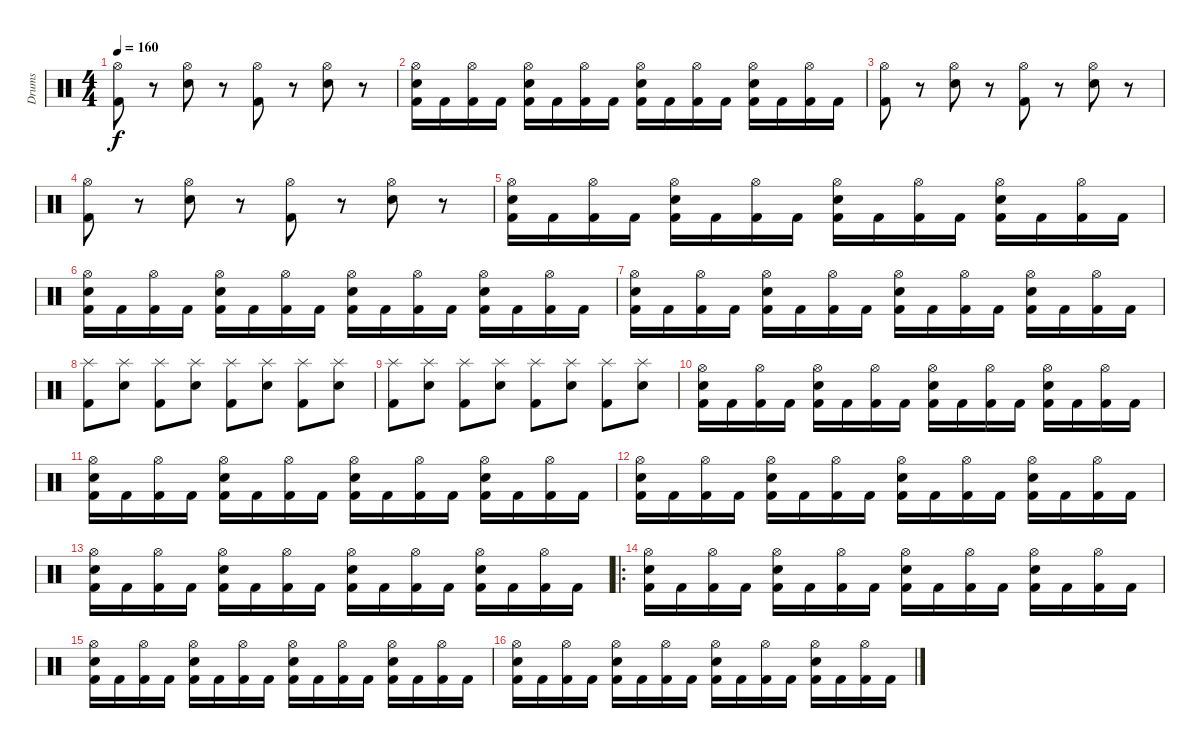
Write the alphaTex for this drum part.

\track ("Drums" "Drums") {instrument percussion}
\staff {score}
\articulation defaults
\ts (4 4)
\tempo 160
\clef neutral
\ks c
("Hi-Hat (open)" "Kick (hit) 2").8{dy f} r.8 ("Hi-Hat (open)" "Electric Snare (hit)").8 r.8 ("Hi-Hat (open)" "Kick (hit) 2").8 r.8 ("Hi-Hat (open)" "Electric Snare (hit)").8 r.8 |
("Hi-Hat (open)" "Electric Snare (hit)" "Kick (hit) 2").16 "Kick (hit) 2".16 ("Hi-Hat (open)" "Kick (hit) 2").16 "Kick (hit) 2".16 ("Hi-Hat (open)" "Electric Snare (hit)" "Kick (hit) 2").16 "Kick (hit) 2".16 ("Hi-Hat (open)" "Kick (hit) 2").16 "Kick (hit) 2".16 ("Hi-Hat (open)" "Electric Snare (hit)" "Kick (hit) 2").16 "Kick (hit) 2".16 ("Hi-Hat (open)" "Kick (hit) 2").16 "Kick (hit) 2".16 ("Hi-Hat (open)" "Electric Snare (hit)" "Kick (hit) 2").16 "Kick (hit) 2".16 ("Hi-Hat (open)" "Kick (hit) 2").16 "Kick (hit) 2".16 |
("Hi-Hat (open)" "Kick (hit) 2").8 r.8 ("Hi-Hat (open)" "Electric Snare (hit)").8 r.8 ("Hi-Hat (open)" "Kick (hit) 2").8 r.8 ("Hi-Hat (open)" "Electric Snare (hit)").8 r.8 |
("Hi-Hat (open)" "Kick (hit) 2").8 r.8 ("Hi-Hat (open)" "Electric Snare (hit)").8 r.8 ("Hi-Hat (open)" "Kick (hit) 2").8 r.8 ("Hi-Hat (open)" "Electric Snare (hit)").8 r.8 |
("Hi-Hat (open)" "Electric Snare (hit)" "Kick (hit) 2").16 "Kick (hit) 2".16 ("Hi-Hat (open)" "Kick (hit) 2").16 "Kick (hit) 2".16 ("Hi-Hat (open)" "Electric Snare (hit)" "Kick (hit) 2").16 "Kick (hit) 2".16 ("Hi-Hat (open)" "Kick (hit) 2").16 "Kick (hit) 2".16 ("Hi-Hat (open)" "Electric Snare (hit)" "Kick (hit) 2").16 "Kick (hit) 2".16 ("Hi-Hat (open)" "Kick (hit) 2").16 "Kick (hit) 2".16 ("Hi-Hat (open)" "Electric Snare (hit)" "Kick (hit) 2").16 "Kick (hit) 2".16 ("Hi-Hat (open)" "Kick (hit) 2").16 "Kick (hit) 2".16 |
("Hi-Hat (open)" "Electric Snare (hit)" "Kick (hit) 2").16 "Kick (hit) 2".16 ("Hi-Hat (open)" "Kick (hit) 2").16 "Kick (hit) 2".16 ("Hi-Hat (open)" "Electric Snare (hit)" "Kick (hit) 2").16 "Kick (hit) 2".16 ("Hi-Hat (open)" "Kick (hit) 2").16 "Kick (hit) 2".16 ("Hi-Hat (open)" "Electric Snare (hit)" "Kick (hit) 2").16 "Kick (hit) 2".16 ("Hi-Hat (open)" "Kick (hit) 2").16 "Kick (hit) 2".16 ("Hi-Hat (open)" "Electric Snare (hit)" "Kick (hit) 2").16 "Kick (hit) 2".16 ("Hi-Hat (open)" "Kick (hit) 2").16 "Kick (hit) 2".16 |
("Hi-Hat (open)" "Electric Snare (hit)" "Kick (hit) 2").16 "Kick (hit) 2".16 ("Hi-Hat (open)" "Kick (hit) 2").16 "Kick (hit) 2".16 ("Hi-Hat (open)" "Electric Snare (hit)" "Kick (hit) 2").16 "Kick (hit) 2".16 ("Hi-Hat (open)" "Kick (hit) 2").16 "Kick (hit) 2".16 ("Hi-Hat (open)" "Electric Snare (hit)" "Kick (hit) 2").16 "Kick (hit) 2".16 ("Hi-Hat (open)" "Kick (hit) 2").16 "Kick (hit) 2".16 ("Hi-Hat (open)" "Electric Snare (hit)" "Kick (hit) 2").16 "Kick (hit) 2".16 ("Hi-Hat (open)" "Kick (hit) 2").16 "Kick (hit) 2".16 |
("Splash (hit)" "Kick (hit) 2").8 ("Splash (hit)" "Electric Snare (hit)").8 ("Splash (hit)" "Kick (hit) 2").8 ("Splash (hit)" "Electric Snare (hit)").8 ("Splash (hit)" "Kick (hit) 2").8 ("Splash (hit)" "Electric Snare (hit)").8 ("Splash (hit)" "Kick (hit) 2").8 ("Splash (hit)" "Electric Snare (hit)").8 |
("Splash (hit)" "Kick (hit) 2").8 ("Splash (hit)" "Electric Snare (hit)").8 ("Splash (hit)" "Kick (hit) 2").8 ("Splash (hit)" "Electric Snare (hit)").8 ("Splash (hit)" "Kick (hit) 2").8 ("Splash (hit)" "Electric Snare (hit)").8 ("Splash (hit)" "Kick (hit) 2").8 ("Splash (hit)" "Electric Snare (hit)").8 |
("Hi-Hat (open)" "Electric Snare (hit)" "Kick (hit) 2").16 "Kick (hit) 2".16 ("Hi-Hat (open)" "Kick (hit) 2").16 "Kick (hit) 2".16 ("Hi-Hat (open)" "Electric Snare (hit)" "Kick (hit) 2").16 "Kick (hit) 2".16 ("Hi-Hat (open)" "Kick (hit) 2").16 "Kick (hit) 2".16 ("Hi-Hat (open)" "Electric Snare (hit)" "Kick (hit) 2").16 "Kick (hit) 2".16 ("Hi-Hat (open)" "Kick (hit) 2").16 "Kick (hit) 2".16 ("Hi-Hat (open)" "Electric Snare (hit)" "Kick (hit) 2").16 "Kick (hit) 2".16 ("Hi-Hat (open)" "Kick (hit) 2").16 "Kick (hit) 2".16 |
("Hi-Hat (open)" "Electric Snare (hit)" "Kick (hit) 2").16 "Kick (hit) 2".16 ("Hi-Hat (open)" "Kick (hit) 2").16 "Kick (hit) 2".16 ("Hi-Hat (open)" "Electric Snare (hit)" "Kick (hit) 2").16 "Kick (hit) 2".16 ("Hi-Hat (open)" "Kick (hit) 2").16 "Kick (hit) 2".16 ("Hi-Hat (open)" "Electric Snare (hit)" "Kick (hit) 2").16 "Kick (hit) 2".16 ("Hi-Hat (open)" "Kick (hit) 2").16 "Kick (hit) 2".16 ("Hi-Hat (open)" "Electric Snare (hit)" "Kick (hit) 2").16 "Kick (hit) 2".16 ("Hi-Hat (open)" "Kick (hit) 2").16 "Kick (hit) 2".16 |
("Hi-Hat (open)" "Electric Snare (hit)" "Kick (hit) 2").16 "Kick (hit) 2".16 ("Hi-Hat (open)" "Kick (hit) 2").16 "Kick (hit) 2".16 ("Hi-Hat (open)" "Electric Snare (hit)" "Kick (hit) 2").16 "Kick (hit) 2".16 ("Hi-Hat (open)" "Kick (hit) 2").16 "Kick (hit) 2".16 ("Hi-Hat (open)" "Electric Snare (hit)" "Kick (hit) 2").16 "Kick (hit) 2".16 ("Hi-Hat (open)" "Kick (hit) 2").16 "Kick (hit) 2".16 ("Hi-Hat (open)" "Electric Snare (hit)" "Kick (hit) 2").16 "Kick (hit) 2".16 ("Hi-Hat (open)" "Kick (hit) 2").16 "Kick (hit) 2".16 |
("Hi-Hat (open)" "Electric Snare (hit)" "Kick (hit) 2").16 "Kick (hit) 2".16 ("Hi-Hat (open)" "Kick (hit) 2").16 "Kick (hit) 2".16 ("Hi-Hat (open)" "Electric Snare (hit)" "Kick (hit) 2").16 "Kick (hit) 2".16 ("Hi-Hat (open)" "Kick (hit) 2").16 "Kick (hit) 2".16 ("Hi-Hat (open)" "Electric Snare (hit)" "Kick (hit) 2").16 "Kick (hit) 2".16 ("Hi-Hat (open)" "Kick (hit) 2").16 "Kick (hit) 2".16 ("Hi-Hat (open)" "Electric Snare (hit)" "Kick (hit) 2").16 "Kick (hit) 2".16 ("Hi-Hat (open)" "Kick (hit) 2").16 "Kick (hit) 2".16 |
\ro
("Hi-Hat (open)" "Electric Snare (hit)" "Kick (hit) 2").16 "Kick (hit) 2".16 ("Hi-Hat (open)" "Kick (hit) 2").16 "Kick (hit) 2".16 ("Hi-Hat (open)" "Electric Snare (hit)" "Kick (hit) 2").16 "Kick (hit) 2".16 ("Hi-Hat (open)" "Kick (hit) 2").16 "Kick (hit) 2".16 ("Hi-Hat (open)" "Electric Snare (hit)" "Kick (hit) 2").16 "Kick (hit) 2".16 ("Hi-Hat (open)" "Kick (hit) 2").16 "Kick (hit) 2".16 ("Hi-Hat (open)" "Electric Snare (hit)" "Kick (hit) 2").16 "Kick (hit) 2".16 ("Hi-Hat (open)" "Kick (hit) 2").16 "Kick (hit) 2".16 |
("Hi-Hat (open)" "Electric Snare (hit)" "Kick (hit) 2").16 "Kick (hit) 2".16 ("Hi-Hat (open)" "Kick (hit) 2").16 "Kick (hit) 2".16 ("Hi-Hat (open)" "Electric Snare (hit)" "Kick (hit) 2").16 "Kick (hit) 2".16 ("Hi-Hat (open)" "Kick (hit) 2").16 "Kick (hit) 2".16 ("Hi-Hat (open)" "Electric Snare (hit)" "Kick (hit) 2").16 "Kick (hit) 2".16 ("Hi-Hat (open)" "Kick (hit) 2").16 "Kick (hit) 2".16 ("Hi-Hat (open)" "Electric Snare (hit)" "Kick (hit) 2").16 "Kick (hit) 2".16 ("Hi-Hat (open)" "Kick (hit) 2").16 "Kick (hit) 2".16 |
("Hi-Hat (open)" "Electric Snare (hit)" "Kick (hit) 2").16 "Kick (hit) 2".16 ("Hi-Hat (open)" "Kick (hit) 2").16 "Kick (hit) 2".16 ("Hi-Hat (open)" "Electric Snare (hit)" "Kick (hit) 2").16 "Kick (hit) 2".16 ("Hi-Hat (open)" "Kick (hit) 2").16 "Kick (hit) 2".16 ("Hi-Hat (open)" "Electric Snare (hit)" "Kick (hit) 2").16 "Kick (hit) 2".16 ("Hi-Hat (open)" "Kick (hit) 2").16 "Kick (hit) 2".16 ("Hi-Hat (open)" "Electric Snare (hit)" "Kick (hit) 2").16 "Kick (hit) 2".16 ("Hi-Hat (open)" "Kick (hit) 2").16 "Kick (hit) 2".16
